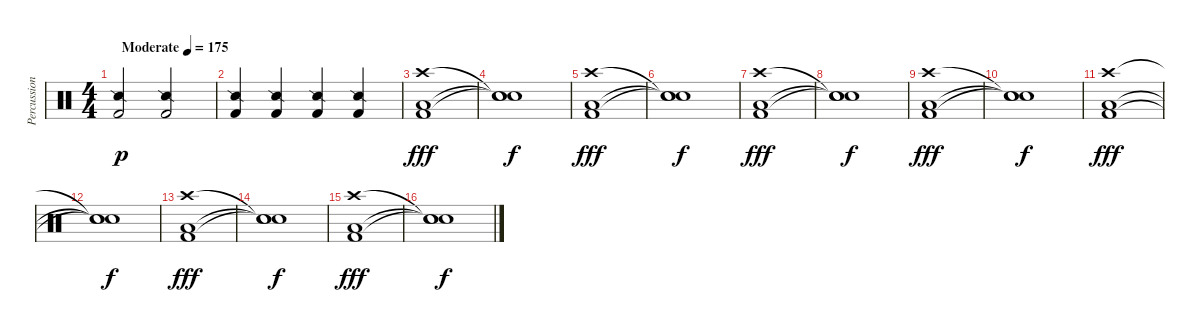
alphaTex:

\track ("Percussion (Karlo Žuliæ)" "Percussion") {instrument percussion}
\staff {score}
\articulation defaults
\ts (4 4)
\tempo (175 "Moderate")
\clef neutral
\ks c
("Kick (hit) 2" "Snare (side stick) 2").2{dy p} ("Kick (hit) 2" "Snare (side stick) 2").2 |
("Kick (hit) 2" "Snare (side stick) 2").4 ("Kick (hit) 2" "Snare (side stick) 2").4 ("Kick (hit) 2" "Snare (side stick) 2").4 ("Kick (hit) 2" "Snare (side stick) 2").4 |
("Low Floor Tom (hit)" "Kick (hit) 2" "Crash high (hit)").1{dy fff} |
("Snare (hit)"{t} "Snare (hit)"{t} "Snare (hit)"{t}).1{dy f} |
("Low Floor Tom (hit)" "Kick (hit) 2" "Crash high (hit)").1{dy fff} |
("Snare (hit)"{t} "Snare (hit)"{t} "Snare (hit)"{t}).1{dy f} |
("Low Floor Tom (hit)" "Kick (hit) 2" "Crash high (hit)").1{dy fff} |
("Snare (hit)"{t} "Snare (hit)"{t} "Snare (hit)"{t}).1{dy f} |
("Low Floor Tom (hit)" "Kick (hit) 2" "Crash high (hit)").1{dy fff} |
("Snare (hit)"{t} "Snare (hit)"{t} "Snare (hit)"{t}).1{dy f} |
("Low Floor Tom (hit)" "Kick (hit) 2" "Crash high (hit)").1{dy fff} |
("Snare (hit)"{t} "Snare (hit)"{t} "Snare (hit)"{t}).1{dy f} |
("Low Floor Tom (hit)" "Kick (hit) 2" "Crash high (hit)").1{dy fff} |
("Snare (hit)"{t} "Snare (hit)"{t} "Snare (hit)"{t}).1{dy f} |
("Low Floor Tom (hit)" "Kick (hit) 2" "Crash high (hit)").1{dy fff} |
("Snare (hit)"{t} "Snare (hit)"{t} "Snare (hit)"{t}).1{dy f}
